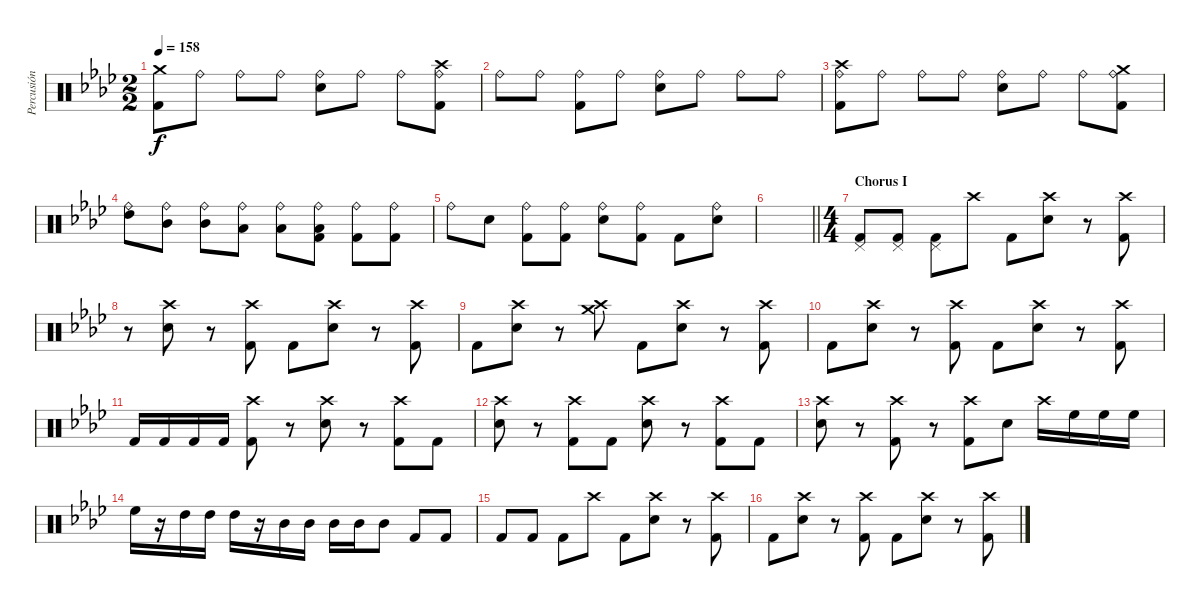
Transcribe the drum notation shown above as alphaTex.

\track ("Percusión" "Percusión") {instrument percussion}
\staff {score}
\articulation defaults
\ts (2 2)
\tempo 158
\clef neutral
\ks ab
("Crash medium (hit)" "Kick (hit) 2").8{dy f} "Ride (bell)".8 "Ride (bell)".8 "Ride (bell)".8 ("Ride (bell)" "Snare (hit) 2").8 "Ride (bell)".8 "Ride (bell)".8 ("Crash high (hit)" "Ride (bell)" "Kick (hit) 2").8 |
"Ride (bell)".8 "Ride (bell)".8 ("Ride (bell)" "Kick (hit) 2").8 "Ride (bell)".8 ("Ride (bell)" "Snare (hit) 2").8 "Ride (bell)".8 "Ride (bell)".8 "Ride (bell)".8 |
("Crash high (hit)" "Ride (bell)" "Kick (hit) 2").8 "Ride (bell)".8 "Ride (bell)".8 "Ride (bell)".8 ("Ride (bell)" "Snare (hit) 2").8 "Ride (bell)".8 "Ride (bell)".8 ("Crash medium (hit)" "Ride (bell)" "Kick (hit) 2").8 |
("Ride (bell)" "High Tom (hit)").8 ("Ride (bell)" "Mid Tom (hit)").8 ("Ride (bell)" "Mid Tom (hit)").8 ("Ride (bell)" "Low Tom (hit)").8 ("Ride (bell)" "Low Tom (hit)").8 ("Ride (bell)" "Low Tom (hit)" "Kick (hit) 2").8 ("Ride (bell)" "Kick (hit) 2").8 ("Ride (bell)" "Kick (hit) 2").8 |
"Ride (bell)".8 "Snare (hit) 2".8 ("Ride (bell)" "Kick (hit) 2").8 ("Ride (bell)" "Kick (hit) 2").8 ("Ride (bell)" "Snare (hit) 2").8 ("Ride (bell)" "Kick (hit) 2").8 "Kick (hit) 2".8 ("Ride (bell)" "Snare (hit) 2").8 |
\barLineRight lightlight
|
\ts (4 4)
\section ("" "Chorus I")
("Pedal Hi-Hat (hit)" "Kick (hit) 2").8 ("Pedal Hi-Hat (hit)" "Kick (hit) 2").8 ("Pedal Hi-Hat (hit)" "Kick (hit) 2").8 "Crash high (hit)".8 "Kick (hit) 2".8 ("Crash high (hit)" "Snare (hit) 2").8 r.8 ("Crash high (hit)" "Kick (hit) 2").8 |
r.8 ("Crash high (hit)" "Snare (hit) 2").8 r.8 ("Crash high (hit)" "Kick (hit) 2").8 "Kick (hit) 2".8 ("Crash high (hit)" "Snare (hit) 2").8 r.8 ("Crash high (hit)" "Kick (hit) 2").8 |
"Kick (hit) 2".8 ("Crash high (hit)" "Snare (hit) 2").8 r.8 ("Crash high (hit)" "Crash medium (hit)").8 "Kick (hit) 2".8 ("Crash high (hit)" "Snare (hit) 2").8 r.8 ("Crash high (hit)" "Kick (hit) 2").8 |
"Kick (hit) 2".8 ("Crash high (hit)" "Snare (hit) 2").8 r.8 ("Crash high (hit)" "Kick (hit) 2").8 "Kick (hit) 2".8 ("Crash high (hit)" "Snare (hit) 2").8 r.8 ("Crash high (hit)" "Kick (hit) 2").8 |
"Kick (hit) 2".16 "Kick (hit) 2".16 "Kick (hit) 2".16 "Kick (hit) 2".16 ("Crash high (hit)" "Kick (hit) 2").8 r.8 ("Crash high (hit)" "Snare (hit) 2").8 r.8 ("Crash high (hit)" "Kick (hit) 2").8 "Kick (hit) 2".8 |
("Crash high (hit)" "Snare (hit) 2").8 r.8 ("Crash high (hit)" "Kick (hit) 2").8 "Kick (hit) 2".8 ("Crash high (hit)" "Snare (hit) 2").8 r.8 ("Crash high (hit)" "Kick (hit) 2").8 "Kick (hit) 2".8 |
("Crash high (hit)" "Snare (hit) 2").8 r.8 ("Crash high (hit)" "Kick (hit) 2").8 r.8 ("Crash high (hit)" "Kick (hit) 2").8 "Snare (hit) 2".8 "Crash high (hit)".16 "High Floor Tom (hit)".16 "High Floor Tom (hit)".16 "High Floor Tom (hit)".16 |
"High Floor Tom (hit)".16 r.16 "High Tom (hit)".16 "High Tom (hit)".16 "High Tom (hit)".16 r.16 "Mid Tom (hit)".16 "Mid Tom (hit)".16 "Mid Tom (hit)".16 "Mid Tom (hit)".16 "Mid Tom (hit)".8 "Kick (hit) 2".8 "Kick (hit) 2".8 |
"Kick (hit) 2".8 "Kick (hit) 2".8 "Kick (hit) 2".8 "Crash high (hit)".8 "Kick (hit) 2".8 ("Crash high (hit)" "Snare (hit) 2").8 r.8 ("Crash high (hit)" "Kick (hit) 2").8 |
"Kick (hit) 2".8 ("Crash high (hit)" "Snare (hit) 2").8 r.8 ("Crash high (hit)" "Kick (hit) 2").8 "Kick (hit) 2".8 ("Crash high (hit)" "Snare (hit) 2").8 r.8 ("Crash high (hit)" "Kick (hit) 2").8
